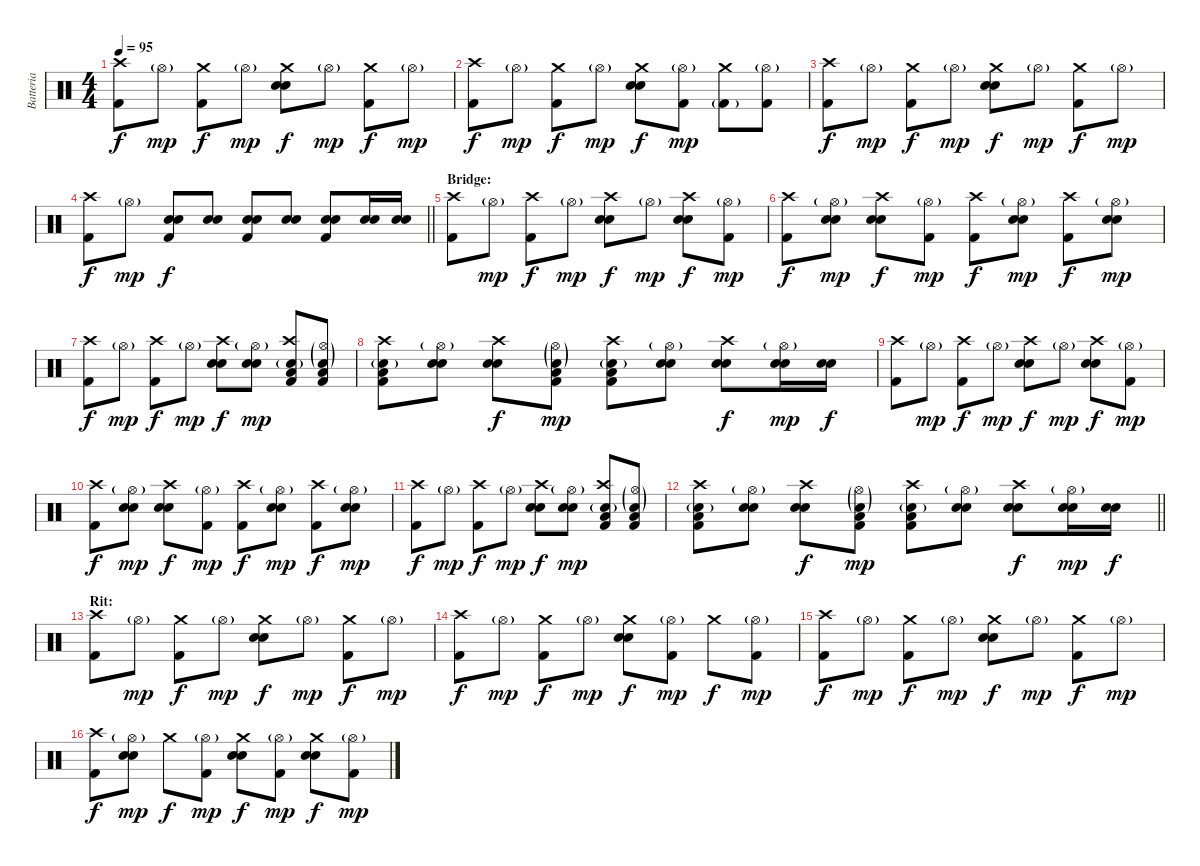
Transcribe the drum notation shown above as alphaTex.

\track ("Batteria" "Batteria") {instrument percussion}
\staff {score}
\articulation defaults
\ts (4 4)
\tempo 95
\clef neutral
\ks c
("Kick (hit) 2" "Crash high (hit)").8{dy f} "Hi-Hat (open)"{g}.8{dy mp} ("Kick (hit) 2" "Crash medium (hit)").8{dy f} "Hi-Hat (open)"{g}.8{dy mp} ("Snare (hit) 2" "Snare (hit) 2" "Crash medium (hit)").8{dy f} "Hi-Hat (open)"{g}.8{dy mp} ("Kick (hit) 2" "Crash medium (hit)").8{dy f} "Hi-Hat (open)"{g}.8{dy mp} |
("Kick (hit) 2" "Crash high (hit)").8{dy f} "Hi-Hat (open)"{g}.8{dy mp} ("Kick (hit) 2" "Crash medium (hit)").8{dy f} "Hi-Hat (open)"{g}.8{dy mp} ("Snare (hit) 2" "Snare (hit) 2" "Crash medium (hit)").8{dy f} ("Kick (hit) 2" "Hi-Hat (open)"{g}).8{dy mp} ("Kick (hit) 2"{g} "Crash medium (hit)").8 ("Kick (hit) 2" "Hi-Hat (open)"{g}).8 |
("Kick (hit) 2" "Crash high (hit)").8{dy f} "Hi-Hat (open)"{g}.8{dy mp} ("Kick (hit) 2" "Crash medium (hit)").8{dy f} "Hi-Hat (open)"{g}.8{dy mp} ("Snare (hit) 2" "Snare (hit) 2" "Crash medium (hit)").8{dy f} "Hi-Hat (open)"{g}.8{dy mp} ("Kick (hit) 2" "Crash medium (hit)").8{dy f} "Hi-Hat (open)"{g}.8{dy mp} |
\barLineRight lightlight
("Kick (hit) 2" "Crash high (hit)").8{dy f} "Hi-Hat (open)"{g}.8{dy mp} ("Kick (hit) 2" "Snare (hit) 2" "Snare (hit) 2").8{dy f} ("Snare (hit) 2" "Snare (hit) 2").8 ("Kick (hit) 2" "Snare (hit) 2" "Snare (hit) 2").8 ("Snare (hit) 2" "Snare (hit) 2").8 ("Kick (hit) 2" "Snare (hit) 2" "Snare (hit) 2").8 ("Snare (hit) 2" "Snare (hit) 2").16 ("Snare (hit) 2" "Snare (hit) 2").16 |
\section ("" "Bridge:")
("Kick (hit) 2" "Crash high (hit)").8 "Hi-Hat (open)"{g}.8{dy mp} ("Kick (hit) 2" "Crash high (hit)").8{dy f} "Hi-Hat (open)"{g}.8{dy mp} ("Snare (hit) 2" "Snare (hit) 2" "Crash high (hit)").8{dy f} "Hi-Hat (open)"{g}.8{dy mp} ("Snare (hit) 2" "Snare (hit) 2" "Crash high (hit)").8{dy f} ("Kick (hit) 2" "Hi-Hat (open)"{g}).8{dy mp} |
("Kick (hit) 2" "Crash high (hit)").8{dy f} ("Snare (hit) 2" "Snare (hit) 2" "Hi-Hat (open)"{g}).8{dy mp} ("Snare (hit) 2" "Snare (hit) 2" "Crash high (hit)").8{dy f} ("Kick (hit) 2" "Hi-Hat (open)"{g}).8{dy mp} ("Kick (hit) 2" "Crash high (hit)").8{dy f} ("Snare (hit) 2" "Snare (hit) 2" "Hi-Hat (open)"{g}).8{dy mp} ("Kick (hit) 2" "Crash high (hit)").8{dy f} ("Snare (hit) 2" "Snare (hit) 2" "Hi-Hat (open)"{g}).8{dy mp} |
("Kick (hit) 2" "Crash high (hit)").8{dy f} "Hi-Hat (open)"{g}.8{dy mp} ("Kick (hit) 2" "Crash high (hit)").8{dy f} "Hi-Hat (open)"{g}.8{dy mp} ("Snare (hit) 2" "Snare (hit) 2" "Crash high (hit)").8{dy f} ("Snare (hit) 2" "Snare (hit) 2" "Hi-Hat (open)"{g}).8{dy mp} ("Kick (hit) 2" "Snare (hit) 2"{g} "Low Floor Tom (hit)" "Crash high (hit)").8 ("Kick (hit) 2" "Snare (hit) 2"{g} "Low Floor Tom (hit)" "Hi-Hat (open)"{g}).8 |
("Kick (hit) 2" "Snare (hit) 2"{g} "Low Floor Tom (hit)" "Crash high (hit)").8 ("Snare (hit) 2" "Snare (hit) 2" "Hi-Hat (open)"{g}).8 ("Snare (hit) 2" "Snare (hit) 2" "Crash high (hit)").8{dy f} ("Kick (hit) 2" "Snare (hit) 2"{g} "Low Floor Tom (hit)" "Hi-Hat (open)"{g}).8{dy mp} ("Kick (hit) 2" "Snare (hit) 2"{g} "Low Floor Tom (hit)" "Crash high (hit)").8 ("Snare (hit) 2" "Snare (hit) 2" "Hi-Hat (open)"{g}).8 ("Snare (hit) 2" "Snare (hit) 2" "Crash high (hit)").8{dy f} ("Snare (hit) 2" "Snare (hit) 2" "Hi-Hat (open)"{g}).16{dy mp} ("Snare (hit) 2" "Snare (hit) 2").16{dy f} |
("Kick (hit) 2" "Crash high (hit)").8 "Hi-Hat (open)"{g}.8{dy mp} ("Kick (hit) 2" "Crash high (hit)").8{dy f} "Hi-Hat (open)"{g}.8{dy mp} ("Snare (hit) 2" "Snare (hit) 2" "Crash high (hit)").8{dy f} "Hi-Hat (open)"{g}.8{dy mp} ("Snare (hit) 2" "Snare (hit) 2" "Crash high (hit)").8{dy f} ("Kick (hit) 2" "Hi-Hat (open)"{g}).8{dy mp} |
("Kick (hit) 2" "Crash high (hit)").8{dy f} ("Snare (hit) 2" "Snare (hit) 2" "Hi-Hat (open)"{g}).8{dy mp} ("Snare (hit) 2" "Snare (hit) 2" "Crash high (hit)").8{dy f} ("Kick (hit) 2" "Hi-Hat (open)"{g}).8{dy mp} ("Kick (hit) 2" "Crash high (hit)").8{dy f} ("Snare (hit) 2" "Snare (hit) 2" "Hi-Hat (open)"{g}).8{dy mp} ("Kick (hit) 2" "Crash high (hit)").8{dy f} ("Snare (hit) 2" "Snare (hit) 2" "Hi-Hat (open)"{g}).8{dy mp} |
("Kick (hit) 2" "Crash high (hit)").8{dy f} "Hi-Hat (open)"{g}.8{dy mp} ("Kick (hit) 2" "Crash high (hit)").8{dy f} "Hi-Hat (open)"{g}.8{dy mp} ("Snare (hit) 2" "Snare (hit) 2" "Crash high (hit)").8{dy f} ("Snare (hit) 2" "Snare (hit) 2" "Hi-Hat (open)"{g}).8{dy mp} ("Kick (hit) 2" "Snare (hit) 2"{g} "Low Floor Tom (hit)" "Crash high (hit)").8 ("Kick (hit) 2" "Snare (hit) 2"{g} "Low Floor Tom (hit)" "Hi-Hat (open)"{g}).8 |
\barLineRight lightlight
("Kick (hit) 2" "Snare (hit) 2"{g} "Low Floor Tom (hit)" "Crash high (hit)").8 ("Snare (hit) 2" "Snare (hit) 2" "Hi-Hat (open)"{g}).8 ("Snare (hit) 2" "Snare (hit) 2" "Crash high (hit)").8{dy f} ("Kick (hit) 2" "Snare (hit) 2"{g} "Low Floor Tom (hit)" "Hi-Hat (open)"{g}).8{dy mp} ("Kick (hit) 2" "Snare (hit) 2"{g} "Low Floor Tom (hit)" "Crash high (hit)").8 ("Snare (hit) 2" "Snare (hit) 2" "Hi-Hat (open)"{g}).8 ("Snare (hit) 2" "Snare (hit) 2" "Crash high (hit)").8{dy f} ("Snare (hit) 2" "Snare (hit) 2" "Hi-Hat (open)"{g}).16{dy mp} ("Snare (hit) 2" "Snare (hit) 2").16{dy f} |
\section ("" "Rit:")
("Kick (hit) 2" "Crash high (hit)").8 "Hi-Hat (open)"{g}.8{dy mp} ("Kick (hit) 2" "Crash medium (hit)").8{dy f} "Hi-Hat (open)"{g}.8{dy mp} ("Snare (hit) 2" "Snare (hit) 2" "Crash medium (hit)").8{dy f} "Hi-Hat (open)"{g}.8{dy mp} ("Kick (hit) 2" "Crash medium (hit)").8{dy f} "Hi-Hat (open)"{g}.8{dy mp} |
("Kick (hit) 2" "Crash high (hit)").8{dy f} "Hi-Hat (open)"{g}.8{dy mp} ("Kick (hit) 2" "Crash medium (hit)").8{dy f} "Hi-Hat (open)"{g}.8{dy mp} ("Snare (hit) 2" "Snare (hit) 2" "Crash medium (hit)").8{dy f} ("Kick (hit) 2" "Hi-Hat (open)"{g}).8{dy mp} "Crash medium (hit)".8{dy f} ("Kick (hit) 2" "Hi-Hat (open)"{g}).8{dy mp} |
("Kick (hit) 2" "Crash high (hit)").8{dy f} "Hi-Hat (open)"{g}.8{dy mp} ("Kick (hit) 2" "Crash medium (hit)").8{dy f} "Hi-Hat (open)"{g}.8{dy mp} ("Snare (hit) 2" "Snare (hit) 2" "Crash medium (hit)").8{dy f} "Hi-Hat (open)"{g}.8{dy mp} ("Kick (hit) 2" "Crash medium (hit)").8{dy f} "Hi-Hat (open)"{g}.8{dy mp} |
("Kick (hit) 2" "Crash high (hit)").8{dy f} ("Snare (hit) 2" "Snare (hit) 2" "Hi-Hat (open)"{g}).8{dy mp} "Crash medium (hit)".8{dy f} ("Kick (hit) 2" "Hi-Hat (open)"{g}).8{dy mp} ("Snare (hit) 2" "Snare (hit) 2" "Crash medium (hit)").8{dy f} ("Kick (hit) 2" "Hi-Hat (open)"{g}).8{dy mp} ("Snare (hit) 2" "Snare (hit) 2" "Crash medium (hit)").8{dy f} ("Kick (hit) 2" "Hi-Hat (open)"{g}).8{dy mp}
